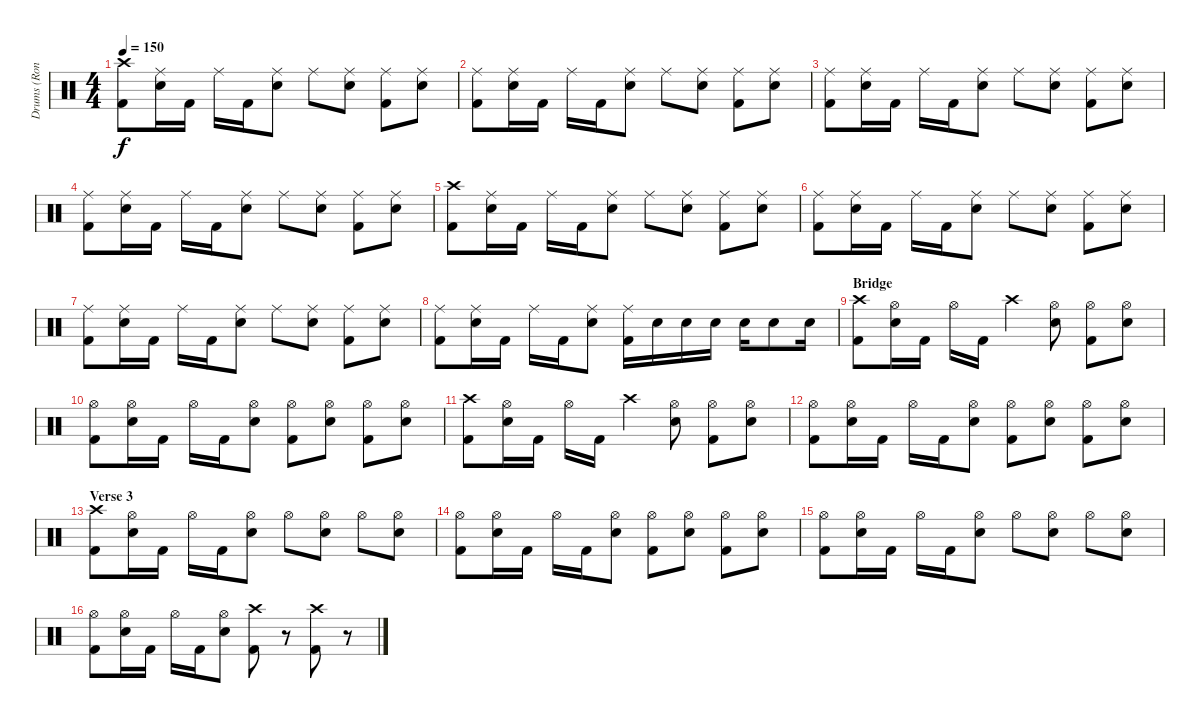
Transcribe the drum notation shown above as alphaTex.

\track ("Drums (Ron Welty)" "Drums (Ron") {instrument percussion}
\staff {score}
\articulation defaults
\ts (4 4)
\tempo 150
\clef neutral
\ks c
("Crash high (hit)" "Kick (hit) 2").8{dy f} ("Ride (middle)" "Electric Snare (hit)").16 "Kick (hit) 2".16 "Ride (middle)".16 "Kick (hit) 2".16 ("Ride (middle)" "Electric Snare (hit)").8 "Ride (middle)".8 ("Ride (middle)" "Electric Snare (hit)").8 ("Ride (middle)" "Kick (hit) 2").8 ("Ride (middle)" "Electric Snare (hit)").8 |
("Ride (middle)" "Kick (hit) 2").8 ("Ride (middle)" "Electric Snare (hit)").16 "Kick (hit) 2".16 "Ride (middle)".16 "Kick (hit) 2".16 ("Ride (middle)" "Electric Snare (hit)").8 "Ride (middle)".8 ("Ride (middle)" "Electric Snare (hit)").8 ("Ride (middle)" "Kick (hit) 2").8 ("Ride (middle)" "Electric Snare (hit)").8 |
("Ride (middle)" "Kick (hit) 2").8 ("Ride (middle)" "Electric Snare (hit)").16 "Kick (hit) 2".16 "Ride (middle)".16 "Kick (hit) 2".16 ("Ride (middle)" "Electric Snare (hit)").8 "Ride (middle)".8 ("Ride (middle)" "Electric Snare (hit)").8 ("Ride (middle)" "Kick (hit) 2").8 ("Ride (middle)" "Electric Snare (hit)").8 |
("Ride (middle)" "Kick (hit) 2").8 ("Ride (middle)" "Electric Snare (hit)").16 "Kick (hit) 2".16 "Ride (middle)".16 "Kick (hit) 2".16 ("Ride (middle)" "Electric Snare (hit)").8 "Ride (middle)".8 ("Ride (middle)" "Electric Snare (hit)").8 ("Ride (middle)" "Kick (hit) 2").8 ("Ride (middle)" "Electric Snare (hit)").8 |
("Crash high (hit)" "Kick (hit) 2").8 ("Ride (middle)" "Electric Snare (hit)").16 "Kick (hit) 2".16 "Ride (middle)".16 "Kick (hit) 2".16 ("Ride (middle)" "Electric Snare (hit)").8 "Ride (middle)".8 ("Ride (middle)" "Electric Snare (hit)").8 ("Ride (middle)" "Kick (hit) 2").8 ("Ride (middle)" "Electric Snare (hit)").8 |
("Ride (middle)" "Kick (hit) 2").8 ("Ride (middle)" "Electric Snare (hit)").16 "Kick (hit) 2".16 "Ride (middle)".16 "Kick (hit) 2".16 ("Ride (middle)" "Electric Snare (hit)").8 "Ride (middle)".8 ("Ride (middle)" "Electric Snare (hit)").8 ("Ride (middle)" "Kick (hit) 2").8 ("Ride (middle)" "Electric Snare (hit)").8 |
("Ride (middle)" "Kick (hit) 2").8 ("Ride (middle)" "Electric Snare (hit)").16 "Kick (hit) 2".16 "Ride (middle)".16 "Kick (hit) 2".16 ("Ride (middle)" "Electric Snare (hit)").8 "Ride (middle)".8 ("Ride (middle)" "Electric Snare (hit)").8 ("Ride (middle)" "Kick (hit) 2").8 ("Ride (middle)" "Electric Snare (hit)").8 |
("Ride (middle)" "Kick (hit) 2").8 ("Ride (middle)" "Electric Snare (hit)").16 "Kick (hit) 2".16 "Ride (middle)".16 "Kick (hit) 2".16 ("Ride (middle)" "Electric Snare (hit)").8 ("Ride (middle)" "Kick (hit) 2").16 "Electric Snare (hit)".16 "Electric Snare (hit)".16 "Electric Snare (hit)".16 "Electric Snare (hit)".16 "Electric Snare (hit)".8 "Electric Snare (hit)".16 |
\section ("" "Bridge")
("Crash high (hit)" "Kick (hit) 2").8 ("Hi-Hat (open)" "Electric Snare (hit)").16 "Kick (hit) 2".16 "Hi-Hat (open)".16 "Kick (hit) 2".16 "Crash high (hit)".4 ("Hi-Hat (open)" "Electric Snare (hit)").8 ("Hi-Hat (open)" "Kick (hit) 2").8 ("Hi-Hat (open)" "Electric Snare (hit)").8 |
("Hi-Hat (open)" "Kick (hit) 2").8 ("Hi-Hat (open)" "Electric Snare (hit)").16 "Kick (hit) 2".16 "Hi-Hat (open)".16 "Kick (hit) 2".16 ("Hi-Hat (open)" "Electric Snare (hit)").8 ("Hi-Hat (open)" "Kick (hit) 2").8 ("Hi-Hat (open)" "Electric Snare (hit)").8 ("Hi-Hat (open)" "Kick (hit) 2").8 ("Hi-Hat (open)" "Electric Snare (hit)").8 |
("Crash high (hit)" "Kick (hit) 2").8 ("Hi-Hat (open)" "Electric Snare (hit)").16 "Kick (hit) 2".16 "Hi-Hat (open)".16 "Kick (hit) 2".16 "Crash high (hit)".4 ("Hi-Hat (open)" "Electric Snare (hit)").8 ("Hi-Hat (open)" "Kick (hit) 2").8 ("Hi-Hat (open)" "Electric Snare (hit)").8 |
("Hi-Hat (open)" "Kick (hit) 2").8 ("Hi-Hat (open)" "Electric Snare (hit)").16 "Kick (hit) 2".16 "Hi-Hat (open)".16 "Kick (hit) 2".16 ("Hi-Hat (open)" "Electric Snare (hit)").8 ("Hi-Hat (open)" "Kick (hit) 2").8 ("Hi-Hat (open)" "Electric Snare (hit)").8 ("Hi-Hat (open)" "Kick (hit) 2").8 ("Hi-Hat (open)" "Electric Snare (hit)").8 |
\section ("" "Verse 3")
("Crash high (hit)" "Kick (hit) 2").8 ("Hi-Hat (open)" "Electric Snare (hit)").16 "Kick (hit) 2".16 "Hi-Hat (open)".16 "Kick (hit) 2".16 ("Hi-Hat (open)" "Electric Snare (hit)").8 "Hi-Hat (open)".8 ("Hi-Hat (open)" "Electric Snare (hit)").8 "Hi-Hat (open)".8 ("Hi-Hat (open)" "Electric Snare (hit)").8 |
("Hi-Hat (open)" "Kick (hit) 2").8 ("Hi-Hat (open)" "Electric Snare (hit)").16 "Kick (hit) 2".16 "Hi-Hat (open)".16 "Kick (hit) 2".16 ("Hi-Hat (open)" "Electric Snare (hit)").8 ("Hi-Hat (open)" "Kick (hit) 2").8 ("Hi-Hat (open)" "Electric Snare (hit)").8 ("Hi-Hat (open)" "Kick (hit) 2").8 ("Hi-Hat (open)" "Electric Snare (hit)").8 |
("Hi-Hat (open)" "Kick (hit) 2").8 ("Hi-Hat (open)" "Electric Snare (hit)").16 "Kick (hit) 2".16 "Hi-Hat (open)".16 "Kick (hit) 2".16 ("Hi-Hat (open)" "Electric Snare (hit)").8 "Hi-Hat (open)".8 ("Hi-Hat (open)" "Electric Snare (hit)").8 "Hi-Hat (open)".8 ("Hi-Hat (open)" "Electric Snare (hit)").8 |
("Hi-Hat (open)" "Kick (hit) 2").8 ("Hi-Hat (open)" "Electric Snare (hit)").16 "Kick (hit) 2".16 "Hi-Hat (open)".16 "Kick (hit) 2".16 ("Hi-Hat (open)" "Electric Snare (hit)").8 ("Crash high (hit)" "Kick (hit) 2").8 r.8 ("Crash high (hit)" "Kick (hit) 2").8 r.8
